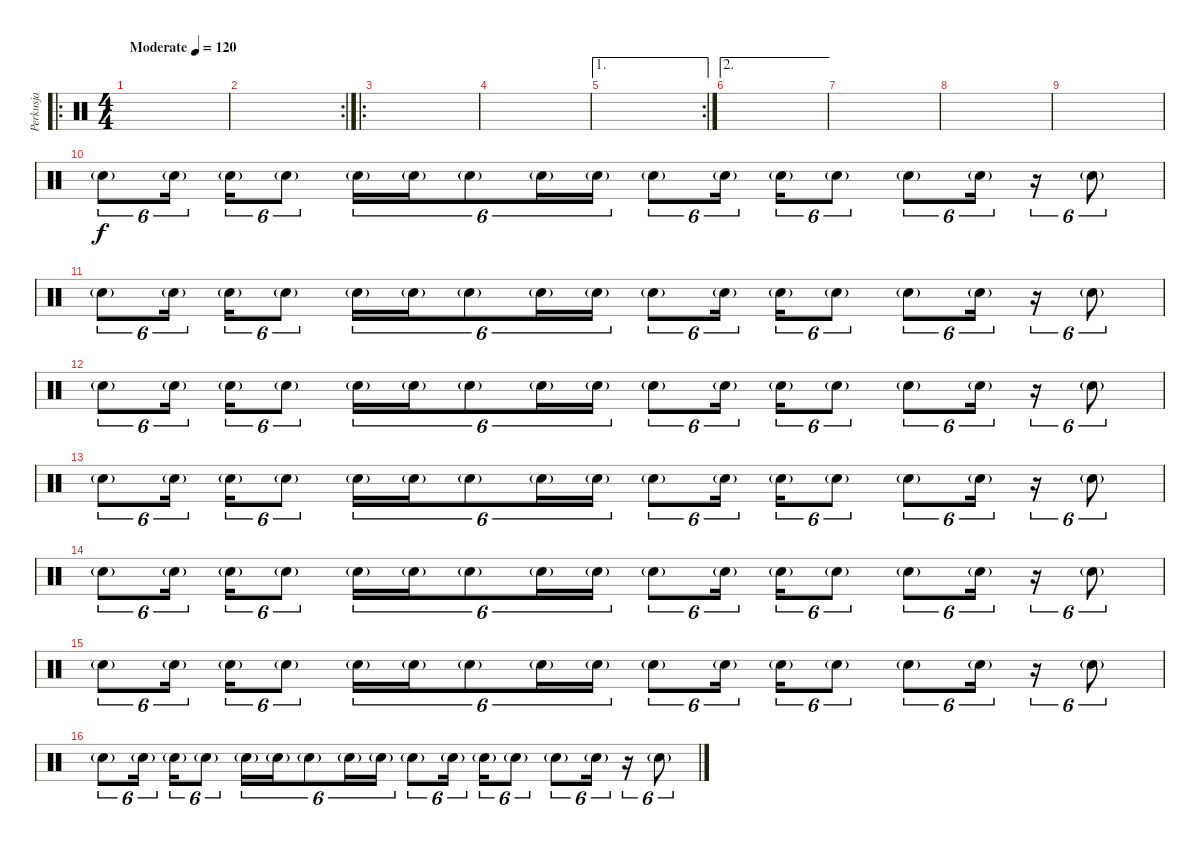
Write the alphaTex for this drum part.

\track ("Perkusja" "Perkusja") {instrument percussion}
\staff {score}
\articulation defaults
\ro
\ts (4 4)
\tempo (120 "Moderate")
\clef neutral
\ks c
|
\rc 2
|
\ro
|
|
\ae 1
\rc 2
|
\ae 2
|
|
|
|
"Electric Snare (hit)"{g}.8{tu (6 4)} "Electric Snare (hit)"{g}.16{tu (6 4) beam splitsecondary} "Electric Snare (hit)"{g}.16{tu (6 4)} "Electric Snare (hit)"{g}.8{tu (6 4)} "Electric Snare (hit)"{g}.16{tu (6 4)} "Electric Snare (hit)"{g}.16{tu (6 4)} "Electric Snare (hit)"{g}.8{tu (6 4)} "Electric Snare (hit)"{g}.16{tu (6 4)} "Electric Snare (hit)"{g}.16{tu (6 4)} "Electric Snare (hit)"{g}.8{tu (6 4)} "Electric Snare (hit)"{g}.16{tu (6 4) beam splitsecondary} "Electric Snare (hit)"{g}.16{tu (6 4)} "Electric Snare (hit)"{g}.8{tu (6 4)} "Electric Snare (hit)"{g}.8{tu (6 4)} "Electric Snare (hit)"{g}.16{tu (6 4)} r.16{tu (6 4)} "Electric Snare (hit)"{g}.8{tu (6 4)} |
"Electric Snare (hit)"{g}.8{tu (6 4)} "Electric Snare (hit)"{g}.16{tu (6 4) beam splitsecondary} "Electric Snare (hit)"{g}.16{tu (6 4)} "Electric Snare (hit)"{g}.8{tu (6 4)} "Electric Snare (hit)"{g}.16{tu (6 4)} "Electric Snare (hit)"{g}.16{tu (6 4)} "Electric Snare (hit)"{g}.8{tu (6 4)} "Electric Snare (hit)"{g}.16{tu (6 4)} "Electric Snare (hit)"{g}.16{tu (6 4)} "Electric Snare (hit)"{g}.8{tu (6 4)} "Electric Snare (hit)"{g}.16{tu (6 4) beam splitsecondary} "Electric Snare (hit)"{g}.16{tu (6 4)} "Electric Snare (hit)"{g}.8{tu (6 4)} "Electric Snare (hit)"{g}.8{tu (6 4)} "Electric Snare (hit)"{g}.16{tu (6 4)} r.16{tu (6 4)} "Electric Snare (hit)"{g}.8{tu (6 4)} |
"Electric Snare (hit)"{g}.8{tu (6 4)} "Electric Snare (hit)"{g}.16{tu (6 4) beam splitsecondary} "Electric Snare (hit)"{g}.16{tu (6 4)} "Electric Snare (hit)"{g}.8{tu (6 4)} "Electric Snare (hit)"{g}.16{tu (6 4)} "Electric Snare (hit)"{g}.16{tu (6 4)} "Electric Snare (hit)"{g}.8{tu (6 4)} "Electric Snare (hit)"{g}.16{tu (6 4)} "Electric Snare (hit)"{g}.16{tu (6 4)} "Electric Snare (hit)"{g}.8{tu (6 4)} "Electric Snare (hit)"{g}.16{tu (6 4) beam splitsecondary} "Electric Snare (hit)"{g}.16{tu (6 4)} "Electric Snare (hit)"{g}.8{tu (6 4)} "Electric Snare (hit)"{g}.8{tu (6 4)} "Electric Snare (hit)"{g}.16{tu (6 4)} r.16{tu (6 4)} "Electric Snare (hit)"{g}.8{tu (6 4)} |
"Electric Snare (hit)"{g}.8{tu (6 4)} "Electric Snare (hit)"{g}.16{tu (6 4) beam splitsecondary} "Electric Snare (hit)"{g}.16{tu (6 4)} "Electric Snare (hit)"{g}.8{tu (6 4)} "Electric Snare (hit)"{g}.16{tu (6 4)} "Electric Snare (hit)"{g}.16{tu (6 4)} "Electric Snare (hit)"{g}.8{tu (6 4)} "Electric Snare (hit)"{g}.16{tu (6 4)} "Electric Snare (hit)"{g}.16{tu (6 4)} "Electric Snare (hit)"{g}.8{tu (6 4)} "Electric Snare (hit)"{g}.16{tu (6 4) beam splitsecondary} "Electric Snare (hit)"{g}.16{tu (6 4)} "Electric Snare (hit)"{g}.8{tu (6 4)} "Electric Snare (hit)"{g}.8{tu (6 4)} "Electric Snare (hit)"{g}.16{tu (6 4)} r.16{tu (6 4)} "Electric Snare (hit)"{g}.8{tu (6 4)} |
"Electric Snare (hit)"{g}.8{tu (6 4)} "Electric Snare (hit)"{g}.16{tu (6 4) beam splitsecondary} "Electric Snare (hit)"{g}.16{tu (6 4)} "Electric Snare (hit)"{g}.8{tu (6 4)} "Electric Snare (hit)"{g}.16{tu (6 4)} "Electric Snare (hit)"{g}.16{tu (6 4)} "Electric Snare (hit)"{g}.8{tu (6 4)} "Electric Snare (hit)"{g}.16{tu (6 4)} "Electric Snare (hit)"{g}.16{tu (6 4)} "Electric Snare (hit)"{g}.8{tu (6 4)} "Electric Snare (hit)"{g}.16{tu (6 4) beam splitsecondary} "Electric Snare (hit)"{g}.16{tu (6 4)} "Electric Snare (hit)"{g}.8{tu (6 4)} "Electric Snare (hit)"{g}.8{tu (6 4)} "Electric Snare (hit)"{g}.16{tu (6 4)} r.16{tu (6 4)} "Electric Snare (hit)"{g}.8{tu (6 4)} |
"Electric Snare (hit)"{g}.8{tu (6 4)} "Electric Snare (hit)"{g}.16{tu (6 4) beam splitsecondary} "Electric Snare (hit)"{g}.16{tu (6 4)} "Electric Snare (hit)"{g}.8{tu (6 4)} "Electric Snare (hit)"{g}.16{tu (6 4)} "Electric Snare (hit)"{g}.16{tu (6 4)} "Electric Snare (hit)"{g}.8{tu (6 4)} "Electric Snare (hit)"{g}.16{tu (6 4)} "Electric Snare (hit)"{g}.16{tu (6 4)} "Electric Snare (hit)"{g}.8{tu (6 4)} "Electric Snare (hit)"{g}.16{tu (6 4) beam splitsecondary} "Electric Snare (hit)"{g}.16{tu (6 4)} "Electric Snare (hit)"{g}.8{tu (6 4)} "Electric Snare (hit)"{g}.8{tu (6 4)} "Electric Snare (hit)"{g}.16{tu (6 4)} r.16{tu (6 4)} "Electric Snare (hit)"{g}.8{tu (6 4)} |
"Electric Snare (hit)"{g}.8{tu (6 4)} "Electric Snare (hit)"{g}.16{tu (6 4) beam splitsecondary} "Electric Snare (hit)"{g}.16{tu (6 4)} "Electric Snare (hit)"{g}.8{tu (6 4)} "Electric Snare (hit)"{g}.16{tu (6 4)} "Electric Snare (hit)"{g}.16{tu (6 4)} "Electric Snare (hit)"{g}.8{tu (6 4)} "Electric Snare (hit)"{g}.16{tu (6 4)} "Electric Snare (hit)"{g}.16{tu (6 4)} "Electric Snare (hit)"{g}.8{tu (6 4)} "Electric Snare (hit)"{g}.16{tu (6 4) beam splitsecondary} "Electric Snare (hit)"{g}.16{tu (6 4)} "Electric Snare (hit)"{g}.8{tu (6 4)} "Electric Snare (hit)"{g}.8{tu (6 4)} "Electric Snare (hit)"{g}.16{tu (6 4)} r.16{tu (6 4)} "Electric Snare (hit)"{g}.8{tu (6 4)}
